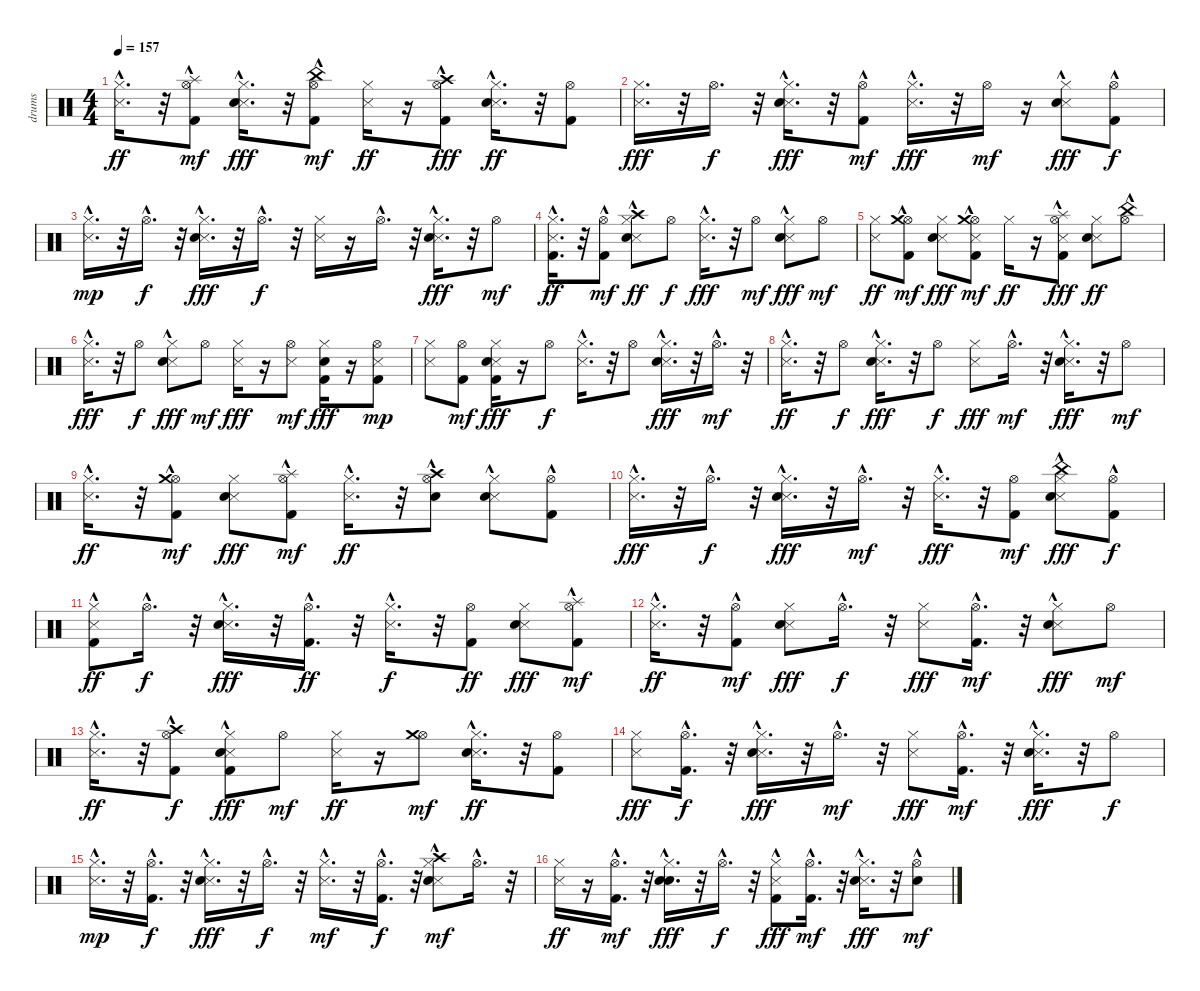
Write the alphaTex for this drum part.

\track ("drums   " "drums   ") {instrument percussion}
\staff {score}
\articulation defaults
\ts (4 4)
\tempo 157
\clef neutral
\ks c
("Snare (side stick) 3"{hac} "Hi-Hat (closed)").16{d dy ff} r.32 ("Kick (hit) 2" "Hi-Hat (open)"{hac} "Splash (hit)"{hac}).8{dy mf} ("Snare (side stick) 3" "Hand Clap (hit)"{hac} "Hi-Hat (closed)").16{d dy fff} r.32 ("Kick (hit) 2"{hac} "Hi-Hat (open)"{hac} "China (hit)").8{dy mf} ("Snare (side stick) 3" "Hi-Hat (closed)").16{dy ff} r.16 ("Kick (hit) 2" "Hi-Hat (open)" "Crash high (hit)"{hac}).8{dy fff} ("Snare (side stick) 3"{hac} "Hand Clap (hit)" "Hi-Hat (closed)").16{d dy ff} r.32 ("Kick (hit) 2" "Hi-Hat (open)").8 |
("Snare (side stick) 3" "Hi-Hat (closed)").16{d dy fff} r.32 "Hi-Hat (open)".16{d dy f} r.32 ("Snare (side stick) 3"{hac} "Hand Clap (hit)" "Hi-Hat (closed)").16{d dy fff} r.32 ("Kick (hit) 2" "Hi-Hat (open)"{hac}).8{dy mf} ("Snare (side stick) 3"{hac} "Hi-Hat (closed)").16{d dy fff} r.32 "Hi-Hat (open)".16{dy mf} r.16 ("Snare (side stick) 3" "Hand Clap (hit)"{hac} "Hi-Hat (closed)").8{dy fff} ("Kick (hit) 2" "Hi-Hat (open)"{hac}).8{dy f} |
("Snare (side stick) 3"{hac} "Hi-Hat (closed)").16{d dy mp} r.32 "Hi-Hat (open)"{hac}.16{d dy f} r.32 ("Snare (side stick) 3"{hac} "Hand Clap (hit)"{hac} "Hi-Hat (closed)").16{d dy fff} r.32 "Hi-Hat (open)"{hac}.16{d dy f} r.32 ("Snare (side stick) 3" "Hi-Hat (closed)").16 r.16 "Hi-Hat (open)"{hac}.16{d} r.32 ("Snare (side stick) 3" "Hand Clap (hit)"{hac} "Hi-Hat (closed)").16{d dy fff} r.32 "Hi-Hat (open)".8{dy mf} |
("Kick (hit) 2"{hac} "Snare (side stick) 3"{hac} "Hi-Hat (closed)").16{d dy ff} r.32 ("Kick (hit) 2"{hac} "Hi-Hat (open)").8{dy mf} ("Snare (side stick) 3"{hac} "Hand Clap (hit)" "Hi-Hat (closed)" "Crash high (hit)").8{dy ff} "Hi-Hat (open)".8{dy f} ("Snare (side stick) 3"{hac} "Hi-Hat (closed)").16{d dy fff} r.32 "Hi-Hat (open)".8{dy mf} ("Snare (side stick) 3" "Hand Clap (hit)"{hac} "Hi-Hat (closed)").8{dy fff} "Hi-Hat (open)".8{dy mf} |
("Snare (side stick) 3" "Hi-Hat (closed)").8{dy ff} ("Kick (hit) 2"{hac} "Hi-Hat (open)" "Crash medium (hit)").8{dy mf} ("Snare (side stick) 3" "Hand Clap (hit)" "Hi-Hat (closed)").8{dy fff} ("Kick (hit) 2" "Snare (side stick) 3" "Hi-Hat (open)" "Crash medium (hit)"{hac}).8{dy mf} "Hi-Hat (closed)".16{dy ff} r.16 ("Kick (hit) 2" "Snare (side stick) 3"{hac} "Hi-Hat (open)" "Splash (hit)"{hac}).8{dy fff} ("Snare (side stick) 3" "Hand Clap (hit)" "Hi-Hat (closed)").8{dy ff} ("Hi-Hat (open)" "China (hit)"{hac}).8 |
("Snare (side stick) 3"{hac} "Hi-Hat (closed)").16{d dy fff} r.32 "Hi-Hat (open)".8{dy f} ("Snare (side stick) 3" "Hand Clap (hit)"{hac} "Hi-Hat (closed)").8{dy fff} "Hi-Hat (open)".8{dy mf} ("Snare (side stick) 3" "Hi-Hat (closed)").16{dy fff} r.16 ("Snare (side stick) 3" "Hi-Hat (open)").8{dy mf} ("Kick (hit) 2" "Hand Clap (hit)" "Hi-Hat (closed)").16{dy fff} r.16 ("Kick (hit) 2" "Snare (side stick) 3" "Hi-Hat (open)").8{dy mp} |
("Snare (side stick) 3" "Hi-Hat (closed)").8 ("Kick (hit) 2" "Hi-Hat (open)").8{dy mf} ("Kick (hit) 2" "Snare (side stick) 3" "Hand Clap (hit)" "Hi-Hat (closed)").16{dy fff} r.16 "Hi-Hat (open)".8{dy f} ("Snare (side stick) 3"{hac} "Hi-Hat (closed)").16{d} r.32 "Hi-Hat (open)".8 ("Snare (side stick) 3"{hac} "Hand Clap (hit)"{hac} "Hi-Hat (closed)").16{d dy fff} r.32 "Hi-Hat (open)"{hac}.16{d dy mf} r.32 |
("Snare (side stick) 3"{hac} "Hi-Hat (closed)").16{d dy ff} r.32 "Hi-Hat (open)".8{dy f} ("Snare (side stick) 3"{hac} "Hand Clap (hit)"{hac} "Hi-Hat (closed)").16{d dy fff} r.32 "Hi-Hat (open)".8{dy f} ("Snare (side stick) 3" "Hi-Hat (closed)").8{dy fff} "Hi-Hat (open)"{hac}.16{d dy mf} r.32 ("Snare (side stick) 3"{hac} "Hand Clap (hit)"{hac} "Hi-Hat (closed)").16{d dy fff} r.32 "Hi-Hat (open)".8{dy mf} |
("Snare (side stick) 3"{hac} "Hi-Hat (closed)").16{d dy ff} r.32 ("Kick (hit) 2"{hac} "Hi-Hat (open)"{hac} "Crash medium (hit)").8{dy mf} ("Snare (side stick) 3" "Hand Clap (hit)" "Hi-Hat (closed)").8{dy fff} ("Kick (hit) 2"{hac} "Hi-Hat (open)"{hac} "Splash (hit)").8{dy mf} ("Snare (side stick) 3"{hac} "Hi-Hat (closed)").16{d dy ff} r.32 ("Electric Snare (hit)"{hac} "Hi-Hat (open)"{hac} "Crash high (hit)").8 ("Snare (side stick) 3" "Hand Clap (hit)"{hac} "Hi-Hat (closed)").8 ("Kick (hit) 2" "Hi-Hat (open)"{hac}).8 |
("Snare (side stick) 3"{hac} "Hi-Hat (closed)").16{d dy fff} r.32 "Hi-Hat (open)"{hac}.16{d dy f} r.32 ("Snare (side stick) 3"{hac} "Hand Clap (hit)" "Hi-Hat (closed)").16{d dy fff} r.32 "Hi-Hat (open)"{hac}.16{d dy mf} r.32 ("Snare (side stick) 3"{hac} "Hi-Hat (closed)").16{d dy fff} r.32 ("Kick (hit) 2" "Hi-Hat (open)").8{dy mf} ("Snare (side stick) 3"{hac} "Hand Clap (hit)" "Hi-Hat (closed)" "China (hit)").8{dy fff} ("Kick (hit) 2" "Hi-Hat (open)"{hac}).8{dy f} |
("Kick (hit) 2" "Snare (side stick) 3"{hac} "Hi-Hat (closed)").8{dy ff} "Hi-Hat (open)"{hac}.16{d dy f} r.32 ("Snare (side stick) 3" "Hand Clap (hit)"{hac} "Hi-Hat (closed)").16{d dy fff} r.32 ("Kick (hit) 2"{hac} "Hi-Hat (open)"{hac}).16{d dy ff} r.32 ("Snare (side stick) 3"{hac} "Hi-Hat (closed)").16{d dy f} r.32 ("Kick (hit) 2" "Hi-Hat (open)").8{dy ff} ("Snare (side stick) 3" "Hand Clap (hit)" "Hi-Hat (closed)").8{dy fff} ("Kick (hit) 2" "Hi-Hat (open)"{hac} "Splash (hit)"{hac}).8{dy mf} |
("Snare (side stick) 3"{hac} "Hi-Hat (closed)").16{d dy ff} r.32 ("Kick (hit) 2" "Hi-Hat (open)"{hac}).8{dy mf} ("Snare (side stick) 3" "Hand Clap (hit)" "Hi-Hat (closed)").8{dy fff} "Hi-Hat (open)"{hac}.16{d dy f} r.32 ("Snare (side stick) 3" "Hi-Hat (closed)").8{dy fff} ("Kick (hit) 2"{hac} "Hi-Hat (open)").16{d dy mf} r.32 ("Snare (side stick) 3" "Hand Clap (hit)"{hac} "Hi-Hat (closed)").8{dy fff} "Hi-Hat (open)".8{dy mf} |
("Snare (side stick) 3"{hac} "Hi-Hat (closed)").16{d dy ff} r.32 ("Kick (hit) 2"{hac} "Hi-Hat (open)" "Crash high (hit)").8{dy f} ("Kick (hit) 2" "Snare (side stick) 3" "Hand Clap (hit)"{hac} "Hi-Hat (closed)").8{dy fff} "Hi-Hat (open)".8{dy mf} ("Snare (side stick) 3" "Hi-Hat (closed)").16{dy ff} r.16 ("Hi-Hat (open)" "Crash medium (hit)").8{dy mf} ("Snare (side stick) 3"{hac} "Hand Clap (hit)"{hac} "Hi-Hat (closed)").16{d dy ff} r.32 ("Kick (hit) 2" "Hi-Hat (open)").8 |
("Snare (side stick) 3" "Hi-Hat (closed)").8{dy fff} ("Kick (hit) 2"{hac} "Hi-Hat (open)"{hac}).16{d dy f} r.32 ("Snare (side stick) 3"{hac} "Hand Clap (hit)" "Hi-Hat (closed)").16{d dy fff} r.32 "Hi-Hat (open)"{hac}.16{d dy mf} r.32 ("Snare (side stick) 3" "Hi-Hat (closed)").8{dy fff} ("Kick (hit) 2"{hac} "Hi-Hat (open)"{hac}).16{d dy mf} r.32 ("Snare (side stick) 3"{hac} "Hand Clap (hit)"{hac} "Hi-Hat (closed)").16{d dy fff} r.32 "Hi-Hat (open)".8{dy f} |
("Snare (side stick) 3"{hac} "Hi-Hat (closed)").16{d dy mp} r.32 ("Kick (hit) 2"{hac} "Hi-Hat (open)"{hac}).16{d dy f} r.32 ("Snare (side stick) 3"{hac} "Hand Clap (hit)" "Hi-Hat (closed)").16{d dy fff} r.32 "Hi-Hat (open)"{hac}.16{d dy f} r.32 ("Snare (side stick) 3"{hac} "Hi-Hat (closed)").16{d dy mf} r.32 ("Kick (hit) 2" "Hi-Hat (open)"{hac}).16{d dy f} r.32 ("Snare (side stick) 3"{hac} "Hand Clap (hit)" "Hi-Hat (closed)" "Crash high (hit)").8{dy mf} "Hi-Hat (open)"{hac}.16{d} r.32 |
("Snare (side stick) 3" "Hi-Hat (closed)").16{dy ff} r.16 ("Kick (hit) 2" "Hi-Hat (open)"{hac}).16{d dy mf} r.32 ("Hand Clap (hit)"{hac} "Electric Snare (hit)"{hac} "Hi-Hat (closed)").16{d dy fff} r.32 "Hi-Hat (open)"{hac}.16{d dy f} r.32 ("Kick (hit) 2"{hac} "Snare (side stick) 3" "Hi-Hat (closed)").8{dy fff} ("Kick (hit) 2"{hac} "Hi-Hat (open)").16{d dy mf} r.32 ("Snare (side stick) 3"{hac} "Hand Clap (hit)" "Hi-Hat (closed)").16{d dy fff} r.32 ("Electric Snare (hit)"{hac} "Hi-Hat (open)").8{dy mf}
